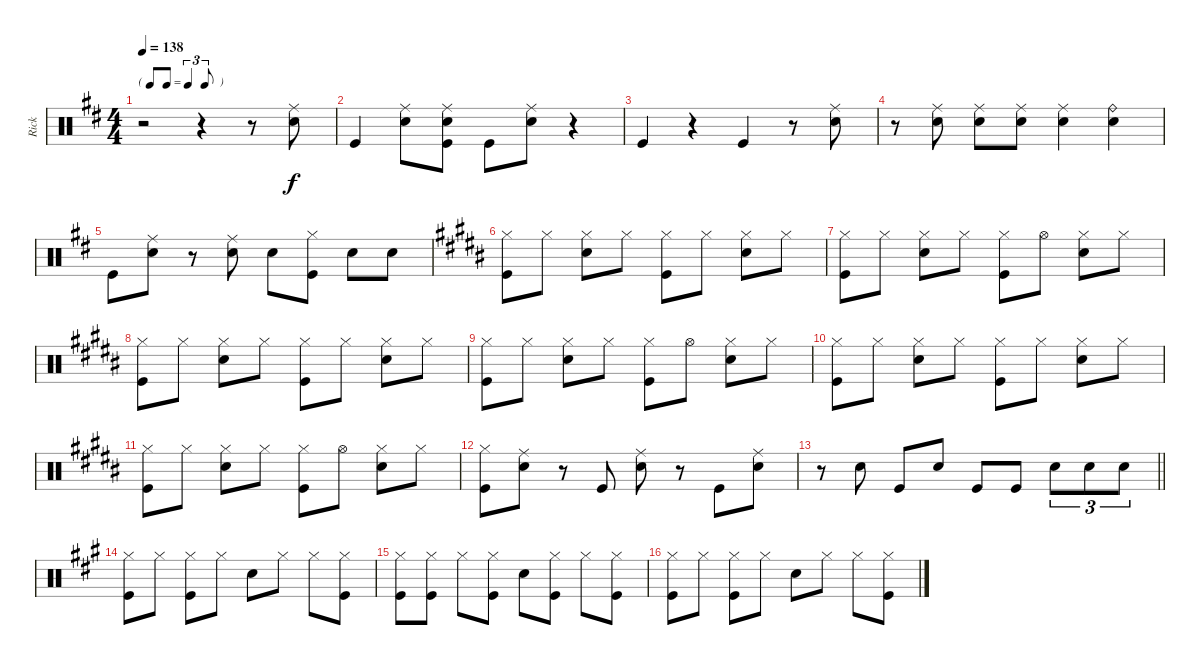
\track ("Rick" "Rick") {instrument percussion}
\staff {score}
\articulation defaults
\ts (4 4)
\tf triplet8th
\tempo 138
\clef neutral
\ks d
r.2{dy f} r.4 r.8 ("Ride (middle)" "Snare (hit) 2").8 |
"Kick (hit)".4 ("Ride (middle)" "Snare (hit) 2").8 ("Ride (middle)" "Snare (hit) 2" "Kick (hit)").8 "Kick (hit)".8 ("Ride (middle)" "Snare (hit) 2").8 r.4 |
"Kick (hit)".4 r.4 "Kick (hit)".4 r.8 ("Ride (middle)" "Snare (hit) 2").8 |
r.8 ("Ride (middle)" "Snare (hit) 2").8 ("Ride (middle)" "Snare (hit) 2").8 ("Ride (middle)" "Snare (hit) 2").8 ("Ride (middle)" "Snare (hit) 2").4 ("Ride (bell)" "Snare (hit) 2").4 |
"Kick (hit)".8 ("Ride (middle)" "Snare (hit) 2").8 r.8 ("Ride (middle)" "Snare (hit) 2").8 "Snare (hit) 2".8 ("Hi-Hat (closed)" "Kick (hit)").8 "Snare (hit) 2".8 "Snare (hit) 2".8 |
\ks b
("Hi-Hat (closed)" "Kick (hit)").8 "Hi-Hat (closed)".8 ("Hi-Hat (closed)" "Snare (hit) 2").8 "Hi-Hat (closed)".8 ("Hi-Hat (closed)" "Kick (hit)").8 "Hi-Hat (closed)".8 ("Hi-Hat (closed)" "Snare (hit) 2").8 "Hi-Hat (closed)".8 |
("Hi-Hat (closed)" "Kick (hit)").8 "Hi-Hat (closed)".8 ("Hi-Hat (closed)" "Snare (hit) 2").8 "Hi-Hat (closed)".8 ("Hi-Hat (closed)" "Kick (hit)").8 "Hi-Hat (open)".8 ("Hi-Hat (closed)" "Snare (hit) 2").8 "Hi-Hat (closed)".8 |
("Hi-Hat (closed)" "Kick (hit)").8 "Hi-Hat (closed)".8 ("Hi-Hat (closed)" "Snare (hit) 2").8 "Hi-Hat (closed)".8 ("Hi-Hat (closed)" "Kick (hit)").8 "Hi-Hat (closed)".8 ("Hi-Hat (closed)" "Snare (hit) 2").8 "Hi-Hat (closed)".8 |
("Hi-Hat (closed)" "Kick (hit)").8 "Hi-Hat (closed)".8 ("Hi-Hat (closed)" "Snare (hit) 2").8 "Hi-Hat (closed)".8 ("Hi-Hat (closed)" "Kick (hit)").8 "Hi-Hat (open)".8 ("Hi-Hat (closed)" "Snare (hit) 2").8 "Hi-Hat (closed)".8 |
("Hi-Hat (closed)" "Kick (hit)").8 "Hi-Hat (closed)".8 ("Hi-Hat (closed)" "Snare (hit) 2").8 "Hi-Hat (closed)".8 ("Hi-Hat (closed)" "Kick (hit)").8 "Hi-Hat (closed)".8 ("Hi-Hat (closed)" "Snare (hit) 2").8 "Hi-Hat (closed)".8 |
("Hi-Hat (closed)" "Kick (hit)").8 "Hi-Hat (closed)".8 ("Hi-Hat (closed)" "Snare (hit) 2").8 "Hi-Hat (closed)".8 ("Hi-Hat (closed)" "Kick (hit)").8 "Hi-Hat (open)".8 ("Hi-Hat (closed)" "Snare (hit) 2").8 "Hi-Hat (closed)".8 |
("Hi-Hat (closed)" "Kick (hit)").8 ("Ride (middle)" "Snare (hit) 2").8 r.8 "Kick (hit)".8 ("Ride (middle)" "Snare (hit) 2").8 r.8 "Kick (hit)".8 ("Ride (middle)" "Snare (hit) 2").8 |
\barLineRight lightlight
r.8 "Snare (hit) 2".8 "Kick (hit)".8 "Snare (hit) 2".8 "Kick (hit)".8 "Kick (hit)".8 "Snare (hit) 2".8{tu (3 2)} "Snare (hit) 2".8{tu (3 2)} "Snare (hit) 2".8{tu (3 2)} |
\ks a
("Hi-Hat (closed)" "Kick (hit)").8 "Hi-Hat (closed)".8 ("Hi-Hat (closed)" "Kick (hit)").8 "Hi-Hat (closed)".8 "Snare (hit) 2".8 "Hi-Hat (closed)".8 "Hi-Hat (closed)".8 ("Hi-Hat (closed)" "Kick (hit)").8 |
("Hi-Hat (closed)" "Kick (hit)").8 ("Hi-Hat (closed)" "Kick (hit)").8 "Hi-Hat (closed)".8 ("Hi-Hat (closed)" "Kick (hit)").8 "Snare (hit) 2".8 ("Hi-Hat (closed)" "Kick (hit)").8 "Hi-Hat (closed)".8 ("Hi-Hat (closed)" "Kick (hit)").8 |
("Hi-Hat (closed)" "Kick (hit)").8 "Hi-Hat (closed)".8 ("Hi-Hat (closed)" "Kick (hit)").8 "Hi-Hat (closed)".8 "Snare (hit) 2".8 "Hi-Hat (closed)".8 "Hi-Hat (closed)".8 ("Hi-Hat (closed)" "Kick (hit)").8
